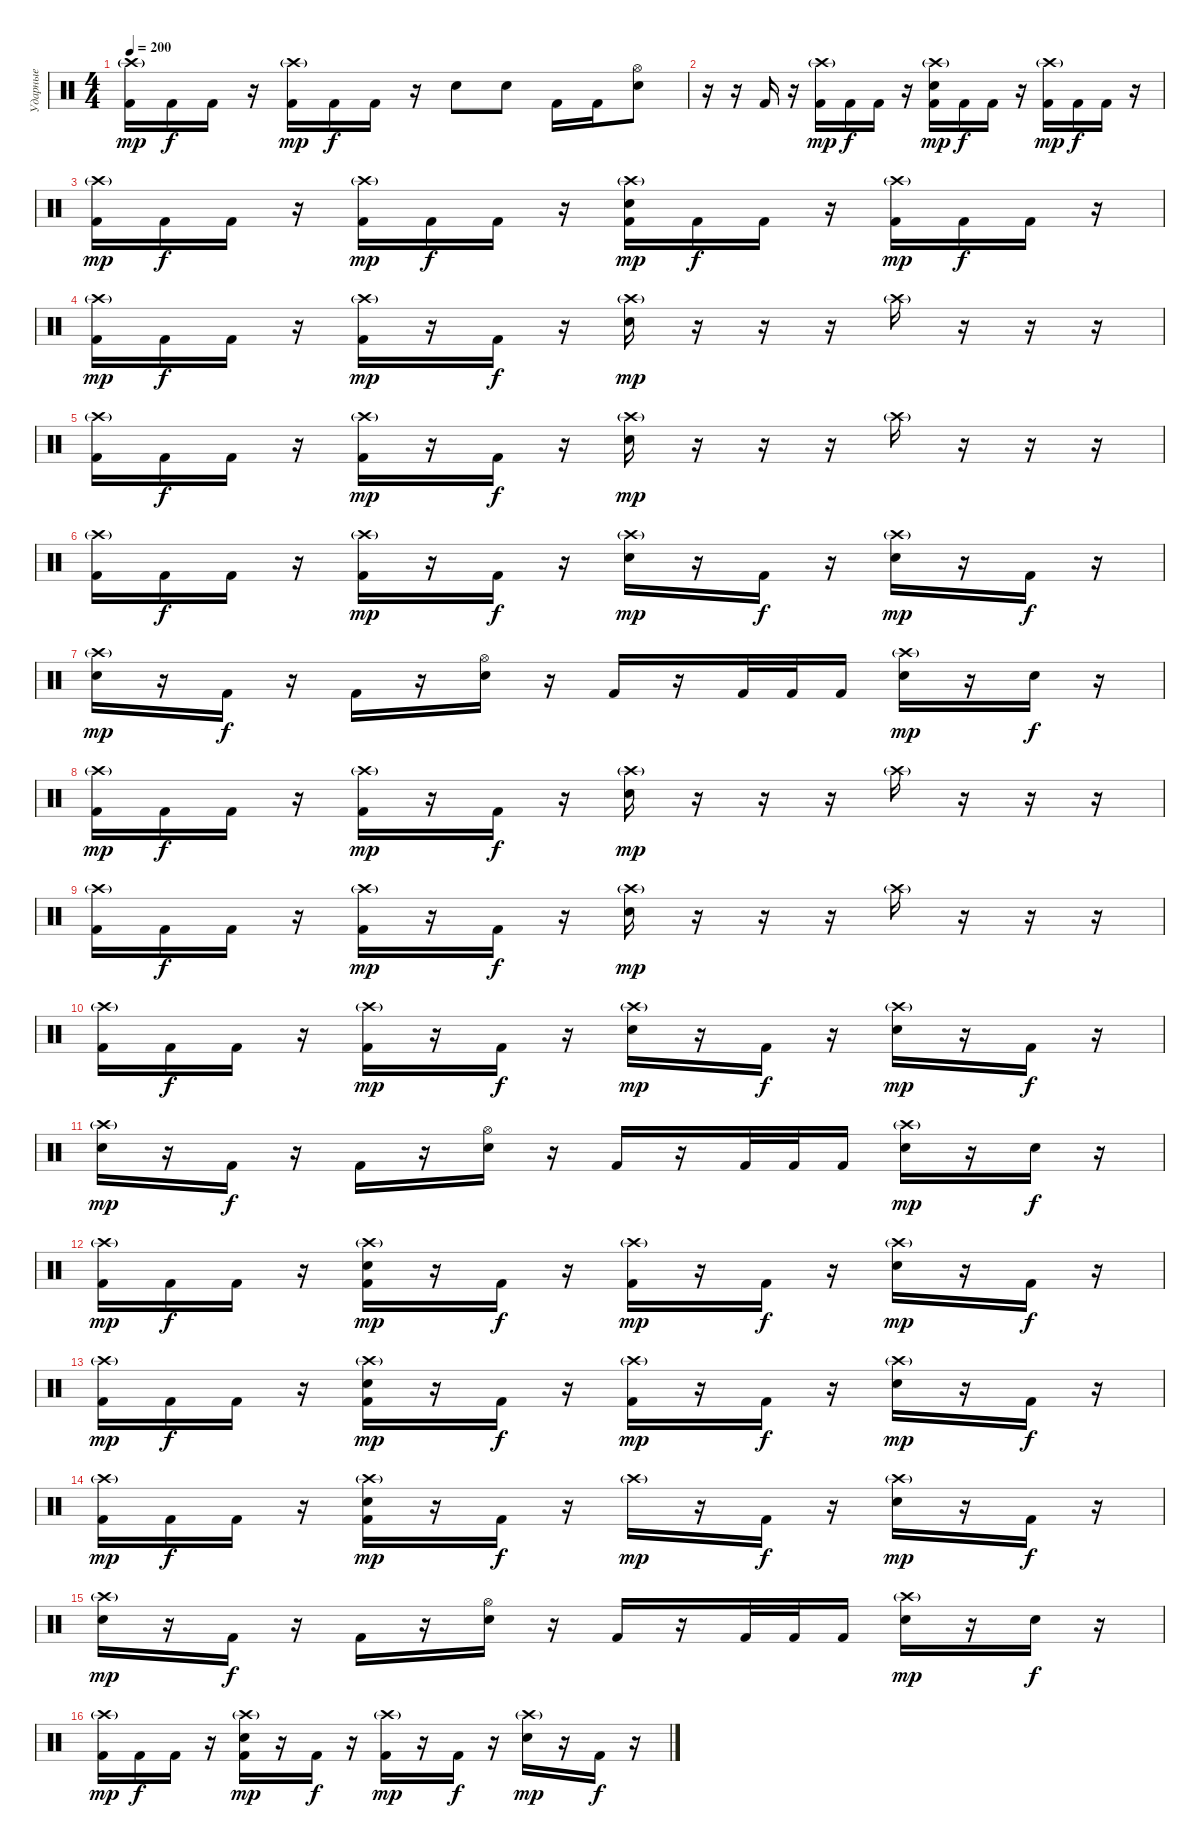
\track ("Ударные" "Ударные") {instrument percussion bank 101}
\staff {score}
\articulation defaults
\ts (4 4)
\tempo 200
\clef neutral
\ks c
("Crash high (hit)"{g} "Kick (hit) 2").16{dy mp} "Kick (hit) 2".16{dy f} "Kick (hit) 2".16 r.16 ("Crash high (hit)"{g} "Kick (hit) 2").16{dy mp} "Kick (hit) 2".16{dy f} "Kick (hit) 2".16 r.16 "Electric Snare (hit)".8 "Electric Snare (hit)".8 "Kick (hit) 2".16 "Kick (hit) 2".16 ("Hi-Hat (open)" "Electric Snare (hit)").8 |
r.16 r.16 "Kick (hit) 2".16 r.16 ("Crash high (hit)"{g} "Kick (hit) 2").16{dy mp} "Kick (hit) 2".16{dy f} "Kick (hit) 2".16 r.16 ("Crash high (hit)"{g} "Electric Snare (hit)" "Kick (hit) 2").16{dy mp} "Kick (hit) 2".16{dy f} "Kick (hit) 2".16 r.16 ("Crash high (hit)"{g} "Kick (hit) 2").16{dy mp} "Kick (hit) 2".16{dy f} "Kick (hit) 2".16 r.16 |
("Crash high (hit)"{g} "Kick (hit) 2").16{dy mp} "Kick (hit) 2".16{dy f} "Kick (hit) 2".16 r.16 ("Crash high (hit)"{g} "Kick (hit) 2").16{dy mp} "Kick (hit) 2".16{dy f} "Kick (hit) 2".16 r.16 ("Crash high (hit)"{g} "Electric Snare (hit)" "Kick (hit) 2").16{dy mp} "Kick (hit) 2".16{dy f} "Kick (hit) 2".16 r.16 ("Crash high (hit)"{g} "Kick (hit) 2").16{dy mp} "Kick (hit) 2".16{dy f} "Kick (hit) 2".16 r.16 |
("Crash high (hit)"{g} "Kick (hit) 2").16{dy mp} "Kick (hit) 2".16{dy f} "Kick (hit) 2".16 r.16 ("Crash high (hit)"{g} "Kick (hit) 2").16{dy mp} r.16 "Kick (hit) 2".16{dy f} r.16 ("Crash high (hit)"{g} "Electric Snare (hit)").16{dy mp} r.16 r.16 r.16 "Crash high (hit)"{g}.16 r.16 r.16 r.16 |
("Crash high (hit)"{g} "Kick (hit) 2").16 "Kick (hit) 2".16{dy f} "Kick (hit) 2".16 r.16 ("Crash high (hit)"{g} "Kick (hit) 2").16{dy mp} r.16 "Kick (hit) 2".16{dy f} r.16 ("Crash high (hit)"{g} "Electric Snare (hit)").16{dy mp} r.16 r.16 r.16 "Crash high (hit)"{g}.16 r.16 r.16 r.16 |
("Crash high (hit)"{g} "Kick (hit) 2").16 "Kick (hit) 2".16{dy f} "Kick (hit) 2".16 r.16 ("Crash high (hit)"{g} "Kick (hit) 2").16{dy mp} r.16 "Kick (hit) 2".16{dy f} r.16 ("Crash high (hit)"{g} "Electric Snare (hit)").16{dy mp} r.16 "Kick (hit) 2".16{dy f} r.16 ("Crash high (hit)"{g} "Electric Snare (hit)").16{dy mp} r.16 "Kick (hit) 2".16{dy f} r.16 |
("Crash high (hit)"{g} "Electric Snare (hit)").16{dy mp} r.16 "Kick (hit) 2".16{dy f} r.16 "Kick (hit) 2".16 r.16 ("Hi-Hat (open)" "Electric Snare (hit)").16 r.16 "Kick (hit) 2".16 r.16 "Kick (hit) 2".32 "Kick (hit) 2".32 "Kick (hit) 2".16 ("Crash high (hit)"{g} "Electric Snare (hit)").16{dy mp} r.16 "Electric Snare (hit)".16{dy f} r.16 |
("Crash high (hit)"{g} "Kick (hit) 2").16{dy mp} "Kick (hit) 2".16{dy f} "Kick (hit) 2".16 r.16 ("Crash high (hit)"{g} "Kick (hit) 2").16{dy mp} r.16 "Kick (hit) 2".16{dy f} r.16 ("Crash high (hit)"{g} "Electric Snare (hit)").16{dy mp} r.16 r.16 r.16 "Crash high (hit)"{g}.16 r.16 r.16 r.16 |
("Crash high (hit)"{g} "Kick (hit) 2").16 "Kick (hit) 2".16{dy f} "Kick (hit) 2".16 r.16 ("Crash high (hit)"{g} "Kick (hit) 2").16{dy mp} r.16 "Kick (hit) 2".16{dy f} r.16 ("Crash high (hit)"{g} "Electric Snare (hit)").16{dy mp} r.16 r.16 r.16 "Crash high (hit)"{g}.16 r.16 r.16 r.16 |
("Crash high (hit)"{g} "Kick (hit) 2").16 "Kick (hit) 2".16{dy f} "Kick (hit) 2".16 r.16 ("Crash high (hit)"{g} "Kick (hit) 2").16{dy mp} r.16 "Kick (hit) 2".16{dy f} r.16 ("Crash high (hit)"{g} "Electric Snare (hit)").16{dy mp} r.16 "Kick (hit) 2".16{dy f} r.16 ("Crash high (hit)"{g} "Electric Snare (hit)").16{dy mp} r.16 "Kick (hit) 2".16{dy f} r.16 |
("Crash high (hit)"{g} "Electric Snare (hit)").16{dy mp} r.16 "Kick (hit) 2".16{dy f} r.16 "Kick (hit) 2".16 r.16 ("Hi-Hat (open)" "Electric Snare (hit)").16 r.16 "Kick (hit) 2".16 r.16 "Kick (hit) 2".32 "Kick (hit) 2".32 "Kick (hit) 2".16 ("Crash high (hit)"{g} "Electric Snare (hit)").16{dy mp} r.16 "Electric Snare (hit)".16{dy f} r.16 |
("Crash high (hit)"{g} "Kick (hit) 2").16{dy mp} "Kick (hit) 2".16{dy f} "Kick (hit) 2".16 r.16 ("Crash high (hit)"{g} "Electric Snare (hit)" "Kick (hit) 2").16{dy mp} r.16 "Kick (hit) 2".16{dy f} r.16 ("Crash high (hit)"{g} "Kick (hit) 2").16{dy mp} r.16 "Kick (hit) 2".16{dy f} r.16 ("Crash high (hit)"{g} "Electric Snare (hit)").16{dy mp} r.16 "Kick (hit) 2".16{dy f} r.16 |
("Crash high (hit)"{g} "Kick (hit) 2").16{dy mp} "Kick (hit) 2".16{dy f} "Kick (hit) 2".16 r.16 ("Crash high (hit)"{g} "Electric Snare (hit)" "Kick (hit) 2").16{dy mp} r.16 "Kick (hit) 2".16{dy f} r.16 ("Crash high (hit)"{g} "Kick (hit) 2").16{dy mp} r.16 "Kick (hit) 2".16{dy f} r.16 ("Crash high (hit)"{g} "Electric Snare (hit)").16{dy mp} r.16 "Kick (hit) 2".16{dy f} r.16 |
("Crash high (hit)"{g} "Kick (hit) 2").16{dy mp} "Kick (hit) 2".16{dy f} "Kick (hit) 2".16 r.16 ("Crash high (hit)"{g} "Electric Snare (hit)" "Kick (hit) 2").16{dy mp} r.16 "Kick (hit) 2".16{dy f} r.16 "Crash high (hit)"{g}.16{dy mp} r.16 "Kick (hit) 2".16{dy f} r.16 ("Crash high (hit)"{g} "Electric Snare (hit)").16{dy mp} r.16 "Kick (hit) 2".16{dy f} r.16 |
("Crash high (hit)"{g} "Electric Snare (hit)").16{dy mp} r.16 "Kick (hit) 2".16{dy f} r.16 "Kick (hit) 2".16 r.16 ("Hi-Hat (open)" "Electric Snare (hit)").16 r.16 "Kick (hit) 2".16 r.16 "Kick (hit) 2".32 "Kick (hit) 2".32 "Kick (hit) 2".16 ("Crash high (hit)"{g} "Electric Snare (hit)").16{dy mp} r.16 "Electric Snare (hit)".16{dy f} r.16 |
("Crash high (hit)"{g} "Kick (hit) 2").16{dy mp} "Kick (hit) 2".16{dy f} "Kick (hit) 2".16 r.16 ("Crash high (hit)"{g} "Electric Snare (hit)" "Kick (hit) 2").16{dy mp} r.16 "Kick (hit) 2".16{dy f} r.16 ("Crash high (hit)"{g} "Kick (hit) 2").16{dy mp} r.16 "Kick (hit) 2".16{dy f} r.16 ("Crash high (hit)"{g} "Electric Snare (hit)").16{dy mp} r.16 "Kick (hit) 2".16{dy f} r.16
